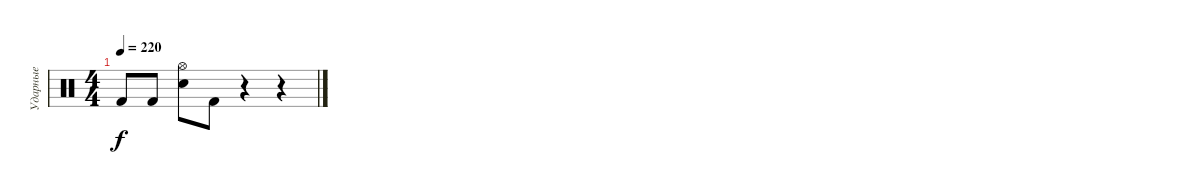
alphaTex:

\track ("Ударные" "Ударные") {instrument percussion}
\staff {score}
\articulation defaults
\ts (4 4)
\tempo 220
\clef neutral
\ks c "Kick (hit) 2".8{dy f} "Kick (hit) 2".8
("Hi-Hat (open)" "Electric Snare (hit)").8 "Kick (hit) 2".8 r.4 r.4
